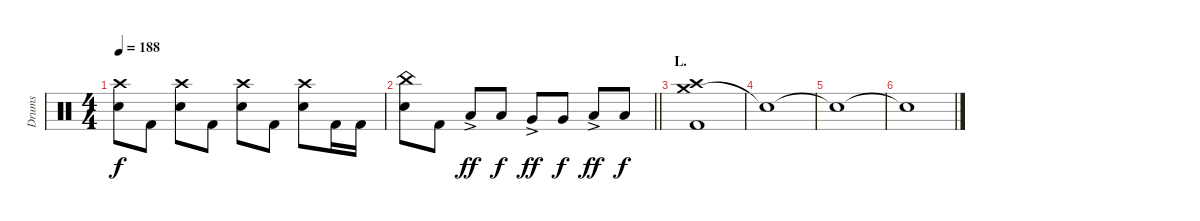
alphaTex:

\track ("Drums" "Drums") {instrument percussion}
\staff {score}
\articulation defaults
\ts (4 4)
\tempo 188
\clef neutral
\ks c
("Crash high (hit)" "Electric Snare (hit)").8{dy f} "Kick (hit) 2".8 ("Crash high (hit)" "Electric Snare (hit)").8 "Kick (hit) 2".8 ("Crash high (hit)" "Electric Snare (hit)").8 "Kick (hit) 2".8 ("Crash high (hit)" "Electric Snare (hit)").8 "Kick (hit) 2".16 "Kick (hit) 2".16 |
\barLineRight lightlight
("China (hit)" "Electric Snare (hit)").8 "Kick (hit) 2".8 "Low Tom (hit)"{ac}.8{dy ff} "Low Tom (hit)".8{dy f} "Very Low Tom (hit)"{ac}.8{dy ff} "Very Low Tom (hit)".8{dy f} "Low Floor Tom (hit)"{ac}.8{dy ff} "Low Floor Tom (hit)".8{dy f} |
\section ("" "L.")
("Crash medium (hit)" "Crash high (hit)" "Kick (hit) 2").1 |
"Snare (hit)"{t}.1 |
"Snare (hit)"{t}.1 |
"Snare (hit)"{t}.1
